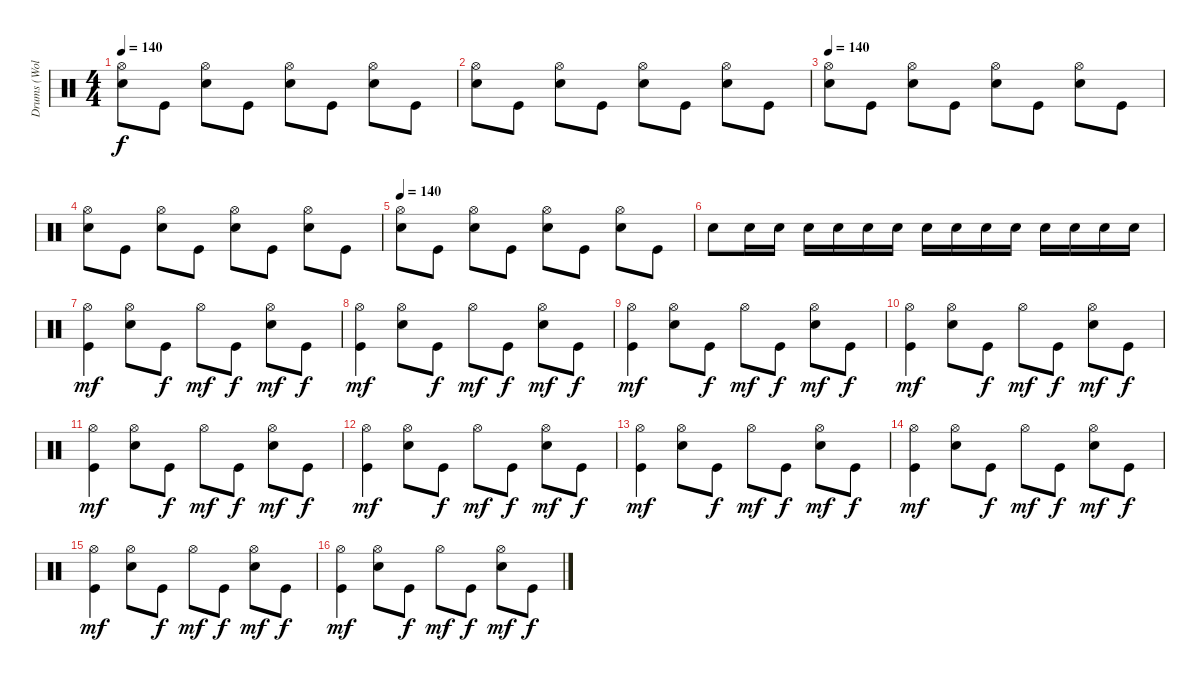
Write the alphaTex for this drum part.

\track ("Drums (Wolf Simons)" "Drums (Wol") {instrument percussion}
\staff {score}
\articulation defaults
\ts (4 4)
\tempo 140
\clef neutral
\ks c
("Hi-Hat (open)" "Electric Snare (hit)").8{dy f} "Kick (hit)".8 ("Hi-Hat (open)" "Electric Snare (hit)").8 "Kick (hit)".8 ("Hi-Hat (open)" "Electric Snare (hit)").8 "Kick (hit)".8 ("Hi-Hat (open)" "Electric Snare (hit)").8 "Kick (hit)".8 |
("Hi-Hat (open)" "Electric Snare (hit)").8 "Kick (hit)".8 ("Hi-Hat (open)" "Electric Snare (hit)").8 "Kick (hit)".8 ("Hi-Hat (open)" "Electric Snare (hit)").8 "Kick (hit)".8 ("Hi-Hat (open)" "Electric Snare (hit)").8 "Kick (hit)".8 |
\tempo 140
("Hi-Hat (open)" "Electric Snare (hit)").8 "Kick (hit)".8 ("Hi-Hat (open)" "Electric Snare (hit)").8 "Kick (hit)".8 ("Hi-Hat (open)" "Electric Snare (hit)").8 "Kick (hit)".8 ("Hi-Hat (open)" "Electric Snare (hit)").8 "Kick (hit)".8 |
("Hi-Hat (open)" "Electric Snare (hit)").8 "Kick (hit)".8 ("Hi-Hat (open)" "Electric Snare (hit)").8 "Kick (hit)".8 ("Hi-Hat (open)" "Electric Snare (hit)").8 "Kick (hit)".8 ("Hi-Hat (open)" "Electric Snare (hit)").8 "Kick (hit)".8 |
\tempo 140
("Hi-Hat (open)" "Electric Snare (hit)").8 "Kick (hit)".8 ("Hi-Hat (open)" "Electric Snare (hit)").8 "Kick (hit)".8 ("Hi-Hat (open)" "Electric Snare (hit)").8 "Kick (hit)".8 ("Hi-Hat (open)" "Electric Snare (hit)").8 "Kick (hit)".8 |
"Electric Snare (hit)".8 "Electric Snare (hit)".16 "Electric Snare (hit)".16 "Electric Snare (hit)".16 "Electric Snare (hit)".16 "Electric Snare (hit)".16 "Electric Snare (hit)".16 "Electric Snare (hit)".16 "Electric Snare (hit)".16 "Electric Snare (hit)".16 "Electric Snare (hit)".16 "Electric Snare (hit)".16 "Electric Snare (hit)".16 "Electric Snare (hit)".16 "Electric Snare (hit)".16 |
("Kick (hit)" "Hi-Hat (open)").4{dy mf} ("Electric Snare (hit)" "Hi-Hat (open)").8 "Kick (hit)".8{dy f} "Hi-Hat (open)".8{dy mf} "Kick (hit)".8{dy f} ("Electric Snare (hit)" "Hi-Hat (open)").8{dy mf} "Kick (hit)".8{dy f} |
("Kick (hit)" "Hi-Hat (open)").4{dy mf} ("Electric Snare (hit)" "Hi-Hat (open)").8 "Kick (hit)".8{dy f} "Hi-Hat (open)".8{dy mf} "Kick (hit)".8{dy f} ("Electric Snare (hit)" "Hi-Hat (open)").8{dy mf} "Kick (hit)".8{dy f} |
("Kick (hit)" "Hi-Hat (open)").4{dy mf} ("Electric Snare (hit)" "Hi-Hat (open)").8 "Kick (hit)".8{dy f} "Hi-Hat (open)".8{dy mf} "Kick (hit)".8{dy f} ("Electric Snare (hit)" "Hi-Hat (open)").8{dy mf} "Kick (hit)".8{dy f} |
("Kick (hit)" "Hi-Hat (open)").4{dy mf} ("Electric Snare (hit)" "Hi-Hat (open)").8 "Kick (hit)".8{dy f} "Hi-Hat (open)".8{dy mf} "Kick (hit)".8{dy f} ("Electric Snare (hit)" "Hi-Hat (open)").8{dy mf} "Kick (hit)".8{dy f} |
("Kick (hit)" "Hi-Hat (open)").4{dy mf} ("Electric Snare (hit)" "Hi-Hat (open)").8 "Kick (hit)".8{dy f} "Hi-Hat (open)".8{dy mf} "Kick (hit)".8{dy f} ("Electric Snare (hit)" "Hi-Hat (open)").8{dy mf} "Kick (hit)".8{dy f} |
("Kick (hit)" "Hi-Hat (open)").4{dy mf} ("Electric Snare (hit)" "Hi-Hat (open)").8 "Kick (hit)".8{dy f} "Hi-Hat (open)".8{dy mf} "Kick (hit)".8{dy f} ("Electric Snare (hit)" "Hi-Hat (open)").8{dy mf} "Kick (hit)".8{dy f} |
("Kick (hit)" "Hi-Hat (open)").4{dy mf} ("Electric Snare (hit)" "Hi-Hat (open)").8 "Kick (hit)".8{dy f} "Hi-Hat (open)".8{dy mf} "Kick (hit)".8{dy f} ("Electric Snare (hit)" "Hi-Hat (open)").8{dy mf} "Kick (hit)".8{dy f} |
("Kick (hit)" "Hi-Hat (open)").4{dy mf} ("Electric Snare (hit)" "Hi-Hat (open)").8 "Kick (hit)".8{dy f} "Hi-Hat (open)".8{dy mf} "Kick (hit)".8{dy f} ("Electric Snare (hit)" "Hi-Hat (open)").8{dy mf} "Kick (hit)".8{dy f} |
("Kick (hit)" "Hi-Hat (open)").4{dy mf} ("Electric Snare (hit)" "Hi-Hat (open)").8 "Kick (hit)".8{dy f} "Hi-Hat (open)".8{dy mf} "Kick (hit)".8{dy f} ("Electric Snare (hit)" "Hi-Hat (open)").8{dy mf} "Kick (hit)".8{dy f} |
("Kick (hit)" "Hi-Hat (open)").4{dy mf} ("Electric Snare (hit)" "Hi-Hat (open)").8 "Kick (hit)".8{dy f} "Hi-Hat (open)".8{dy mf} "Kick (hit)".8{dy f} ("Electric Snare (hit)" "Hi-Hat (open)").8{dy mf} "Kick (hit)".8{dy f}
